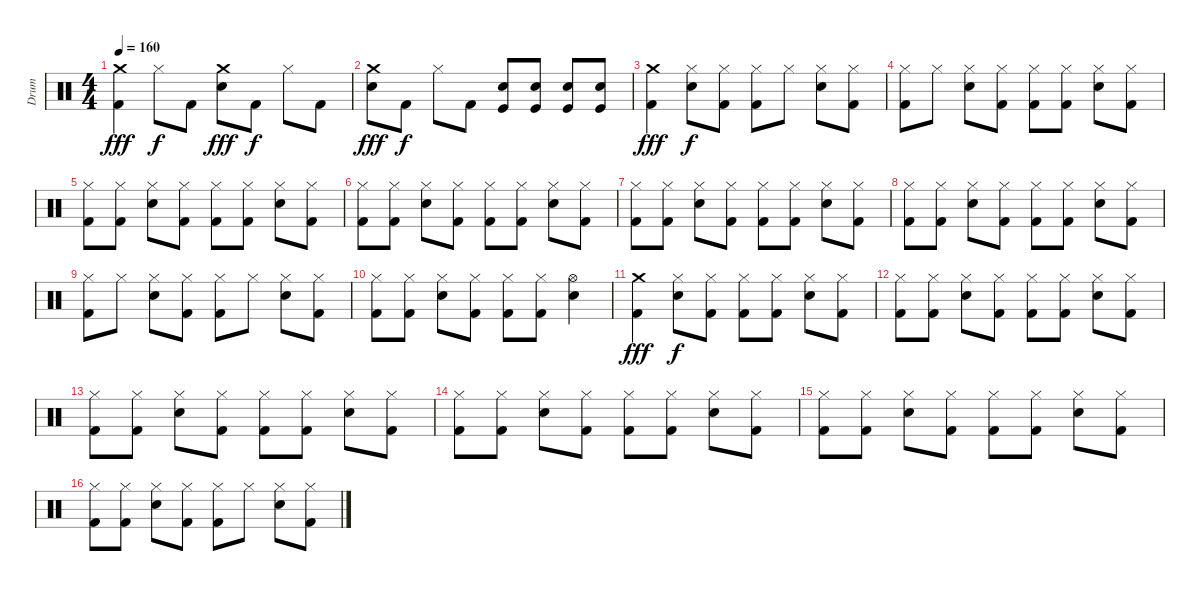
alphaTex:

\track ("Drum" "Drum") {instrument percussion}
\staff {score}
\articulation defaults
\ts (4 4)
\tempo 160
\clef neutral
\ks c
("Crash medium (hit)" "Kick (hit) 2").4{dy fff} "Hi-Hat (closed)".8{dy f} "Kick (hit) 2".8 ("Crash medium (hit)" "Snare (hit) 2").8{dy fff} "Kick (hit) 2".8{dy f} "Hi-Hat (closed)".8 "Kick (hit) 2".8 |
("Crash medium (hit)" "Snare (hit) 2").8{dy fff} "Kick (hit) 2".8{dy f} "Hi-Hat (closed)".8 "Kick (hit) 2".8 ("Snare (hit) 2" "Kick (hit)").8 ("Snare (hit) 2" "Kick (hit)").8 ("Snare (hit) 2" "Kick (hit)").8 ("Snare (hit) 2" "Kick (hit)").8 |
("Crash medium (hit)" "Kick (hit) 2").4{dy fff} ("Hi-Hat (closed)" "Snare (hit) 2").8{dy f} ("Hi-Hat (closed)" "Kick (hit) 2").8 ("Hi-Hat (closed)" "Kick (hit) 2").8 "Hi-Hat (closed)".8 ("Hi-Hat (closed)" "Snare (hit) 2").8 ("Hi-Hat (closed)" "Kick (hit) 2").8 |
("Hi-Hat (closed)" "Kick (hit) 2").8 "Hi-Hat (closed)".8 ("Hi-Hat (closed)" "Snare (hit) 2").8 ("Hi-Hat (closed)" "Kick (hit) 2").8 ("Hi-Hat (closed)" "Kick (hit) 2").8 ("Hi-Hat (closed)" "Kick (hit) 2").8 ("Hi-Hat (closed)" "Snare (hit) 2").8 ("Hi-Hat (closed)" "Kick (hit) 2").8 |
("Hi-Hat (closed)" "Kick (hit) 2").8 ("Hi-Hat (closed)" "Kick (hit) 2").8 ("Hi-Hat (closed)" "Snare (hit) 2").8 ("Hi-Hat (closed)" "Kick (hit) 2").8 ("Hi-Hat (closed)" "Kick (hit) 2").8 ("Hi-Hat (closed)" "Kick (hit) 2").8 ("Hi-Hat (closed)" "Snare (hit) 2").8 ("Hi-Hat (closed)" "Kick (hit) 2").8 |
("Hi-Hat (closed)" "Kick (hit) 2").8 ("Hi-Hat (closed)" "Kick (hit) 2").8 ("Hi-Hat (closed)" "Snare (hit) 2").8 ("Hi-Hat (closed)" "Kick (hit) 2").8 ("Hi-Hat (closed)" "Kick (hit) 2").8 ("Hi-Hat (closed)" "Kick (hit) 2").8 ("Hi-Hat (closed)" "Snare (hit) 2").8 ("Hi-Hat (closed)" "Kick (hit) 2").8 |
("Hi-Hat (closed)" "Kick (hit) 2").8 ("Hi-Hat (closed)" "Kick (hit) 2").8 ("Hi-Hat (closed)" "Snare (hit) 2").8 ("Hi-Hat (closed)" "Kick (hit) 2").8 ("Hi-Hat (closed)" "Kick (hit) 2").8 ("Hi-Hat (closed)" "Kick (hit) 2").8 ("Hi-Hat (closed)" "Snare (hit) 2").8 ("Hi-Hat (closed)" "Kick (hit) 2").8 |
("Hi-Hat (closed)" "Kick (hit) 2").8 ("Hi-Hat (closed)" "Kick (hit) 2").8 ("Hi-Hat (closed)" "Snare (hit) 2").8 ("Hi-Hat (closed)" "Kick (hit) 2").8 ("Hi-Hat (closed)" "Kick (hit) 2").8 ("Hi-Hat (closed)" "Kick (hit) 2").8 ("Hi-Hat (closed)" "Snare (hit) 2").8 ("Hi-Hat (closed)" "Kick (hit) 2").8 |
("Hi-Hat (closed)" "Kick (hit) 2").8 "Hi-Hat (closed)".8 ("Hi-Hat (closed)" "Snare (hit) 2").8 ("Hi-Hat (closed)" "Kick (hit) 2").8 ("Hi-Hat (closed)" "Kick (hit) 2").8 "Hi-Hat (closed)".8 ("Hi-Hat (closed)" "Snare (hit) 2").8 ("Hi-Hat (closed)" "Kick (hit) 2").8 |
("Hi-Hat (closed)" "Kick (hit) 2").8 ("Hi-Hat (closed)" "Kick (hit) 2").8 ("Hi-Hat (closed)" "Snare (hit) 2").8 ("Hi-Hat (closed)" "Kick (hit) 2").8 ("Hi-Hat (closed)" "Kick (hit) 2").8 ("Hi-Hat (closed)" "Kick (hit) 2").8 ("Hi-Hat (open)" "Snare (hit) 2").4 |
("Crash medium (hit)" "Kick (hit) 2").4{dy fff} ("Hi-Hat (closed)" "Snare (hit) 2").8{dy f} ("Hi-Hat (closed)" "Kick (hit) 2").8 ("Hi-Hat (closed)" "Kick (hit) 2").8 ("Hi-Hat (closed)" "Kick (hit) 2").8 ("Hi-Hat (closed)" "Snare (hit) 2").8 ("Hi-Hat (closed)" "Kick (hit) 2").8 |
("Hi-Hat (closed)" "Kick (hit) 2").8 ("Hi-Hat (closed)" "Kick (hit) 2").8 ("Hi-Hat (closed)" "Snare (hit) 2").8 ("Hi-Hat (closed)" "Kick (hit) 2").8 ("Hi-Hat (closed)" "Kick (hit) 2").8 ("Hi-Hat (closed)" "Kick (hit) 2").8 ("Hi-Hat (closed)" "Snare (hit) 2").8 ("Hi-Hat (closed)" "Kick (hit) 2").8 |
("Hi-Hat (closed)" "Kick (hit) 2").8 ("Hi-Hat (closed)" "Kick (hit) 2").8 ("Hi-Hat (closed)" "Snare (hit) 2").8 ("Hi-Hat (closed)" "Kick (hit) 2").8 ("Hi-Hat (closed)" "Kick (hit) 2").8 ("Hi-Hat (closed)" "Kick (hit) 2").8 ("Hi-Hat (closed)" "Snare (hit) 2").8 ("Hi-Hat (closed)" "Kick (hit) 2").8 |
("Hi-Hat (closed)" "Kick (hit) 2").8 ("Hi-Hat (closed)" "Kick (hit) 2").8 ("Hi-Hat (closed)" "Snare (hit) 2").8 ("Hi-Hat (closed)" "Kick (hit) 2").8 ("Hi-Hat (closed)" "Kick (hit) 2").8 ("Hi-Hat (closed)" "Kick (hit) 2").8 ("Hi-Hat (closed)" "Snare (hit) 2").8 ("Hi-Hat (closed)" "Kick (hit) 2").8 |
("Hi-Hat (closed)" "Kick (hit) 2").8 ("Hi-Hat (closed)" "Kick (hit) 2").8 ("Hi-Hat (closed)" "Snare (hit) 2").8 ("Hi-Hat (closed)" "Kick (hit) 2").8 ("Hi-Hat (closed)" "Kick (hit) 2").8 ("Hi-Hat (closed)" "Kick (hit) 2").8 ("Hi-Hat (closed)" "Snare (hit) 2").8 ("Hi-Hat (closed)" "Kick (hit) 2").8 |
("Hi-Hat (closed)" "Kick (hit) 2").8 ("Hi-Hat (closed)" "Kick (hit) 2").8 ("Hi-Hat (closed)" "Snare (hit) 2").8 ("Hi-Hat (closed)" "Kick (hit) 2").8 ("Hi-Hat (closed)" "Kick (hit) 2").8 "Hi-Hat (closed)".8 ("Hi-Hat (closed)" "Snare (hit) 2").8 ("Hi-Hat (closed)" "Kick (hit) 2").8
